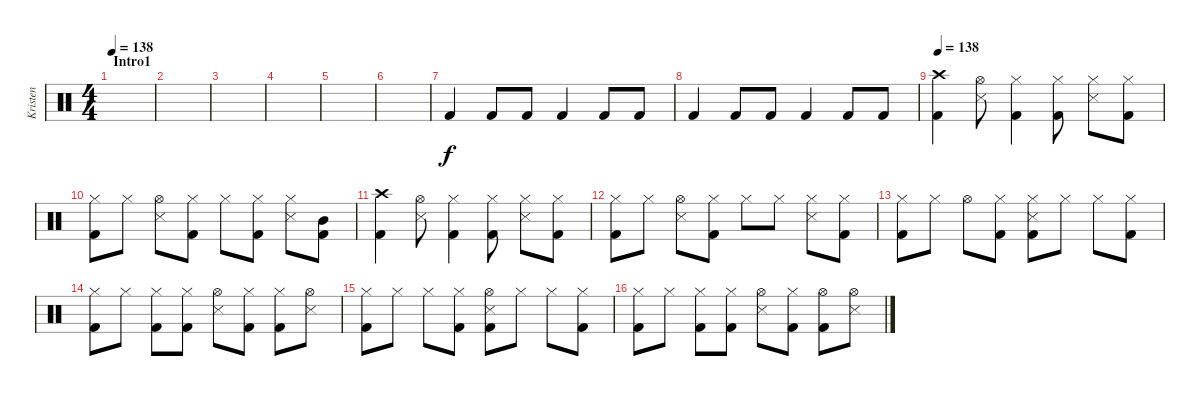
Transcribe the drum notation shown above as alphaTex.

\track ("Kristen" "Kristen") {instrument percussion}
\staff {score}
\articulation defaults
\ts (4 4)
\section ("" "Intro1")
\tempo 138
\clef neutral
\ks c
|
|
|
|
|
|
"Kick (hit) 2".4 "Kick (hit) 2".8 "Kick (hit) 2".8 "Kick (hit) 2".4 "Kick (hit) 2".8 "Kick (hit) 2".8 |
"Kick (hit) 2".4 "Kick (hit) 2".8 "Kick (hit) 2".8 "Kick (hit) 2".4 "Kick (hit) 2".8 "Kick (hit) 2".8 |
\tempo 138
("Crash high (hit)" "Kick (hit) 2").4 ("Hi-Hat (open)" "Snare (side stick) 3").8 ("Hi-Hat (closed)" "Kick (hit) 2").4 ("Hi-Hat (closed)" "Kick (hit) 2").8 ("Hi-Hat (closed)" "Snare (side stick) 3").8 ("Hi-Hat (closed)" "Kick (hit) 2").8 |
("Hi-Hat (closed)" "Kick (hit) 2").8 "Hi-Hat (closed)".8 ("Hi-Hat (open)" "Snare (side stick) 3").8 ("Hi-Hat (closed)" "Kick (hit) 2").8 "Hi-Hat (closed)".8 ("Hi-Hat (closed)" "Kick (hit) 2").8 ("Hi-Hat (closed)" "Snare (side stick) 3").8 ("Mid Tom (hit)" "Kick (hit) 2").8 |
("Crash high (hit)" "Kick (hit) 2").4 ("Hi-Hat (open)" "Snare (side stick) 3").8 ("Hi-Hat (closed)" "Kick (hit) 2").4 ("Hi-Hat (closed)" "Kick (hit) 2").8 ("Hi-Hat (closed)" "Snare (side stick) 3").8 ("Hi-Hat (closed)" "Kick (hit) 2").8 |
("Hi-Hat (closed)" "Kick (hit) 2").8 "Hi-Hat (closed)".8 ("Hi-Hat (open)" "Snare (side stick) 3").8 ("Hi-Hat (closed)" "Kick (hit) 2").8 "Hi-Hat (closed)".8 "Hi-Hat (closed)".8 ("Hi-Hat (closed)" "Snare (side stick) 3").8 ("Hi-Hat (closed)" "Kick (hit) 2").8 |
("Hi-Hat (closed)" "Kick (hit) 2").8 "Hi-Hat (closed)".8 "Hi-Hat (open)".8 ("Hi-Hat (closed)" "Kick (hit) 2").8 ("Hi-Hat (closed)" "Snare (side stick) 3" "Kick (hit) 2").8 "Hi-Hat (closed)".8 "Hi-Hat (closed)".8 ("Hi-Hat (closed)" "Kick (hit) 2").8 |
("Hi-Hat (closed)" "Kick (hit) 2").8 "Hi-Hat (closed)".8 ("Hi-Hat (closed)" "Kick (hit) 2").8 ("Hi-Hat (closed)" "Kick (hit) 2").8 ("Hi-Hat (open)" "Snare (side stick) 3").8 ("Hi-Hat (closed)" "Kick (hit) 2").8 ("Hi-Hat (closed)" "Kick (hit) 2").8 ("Hi-Hat (open)" "Snare (side stick) 3").8 |
("Hi-Hat (closed)" "Kick (hit) 2").8 "Hi-Hat (closed)".8 "Hi-Hat (closed)".8 ("Hi-Hat (closed)" "Kick (hit) 2").8 ("Hi-Hat (open)" "Snare (side stick) 3" "Kick (hit) 2").8 "Hi-Hat (closed)".8 "Hi-Hat (closed)".8 ("Hi-Hat (closed)" "Kick (hit) 2").8 |
("Hi-Hat (closed)" "Kick (hit) 2").8 "Hi-Hat (closed)".8 ("Hi-Hat (closed)" "Kick (hit) 2").8 ("Hi-Hat (closed)" "Kick (hit) 2").8 ("Hi-Hat (open)" "Snare (side stick) 3").8 ("Hi-Hat (closed)" "Kick (hit) 2").8 ("Hi-Hat (open)" "Kick (hit) 2").8 ("Hi-Hat (open)" "Snare (side stick) 3").8
